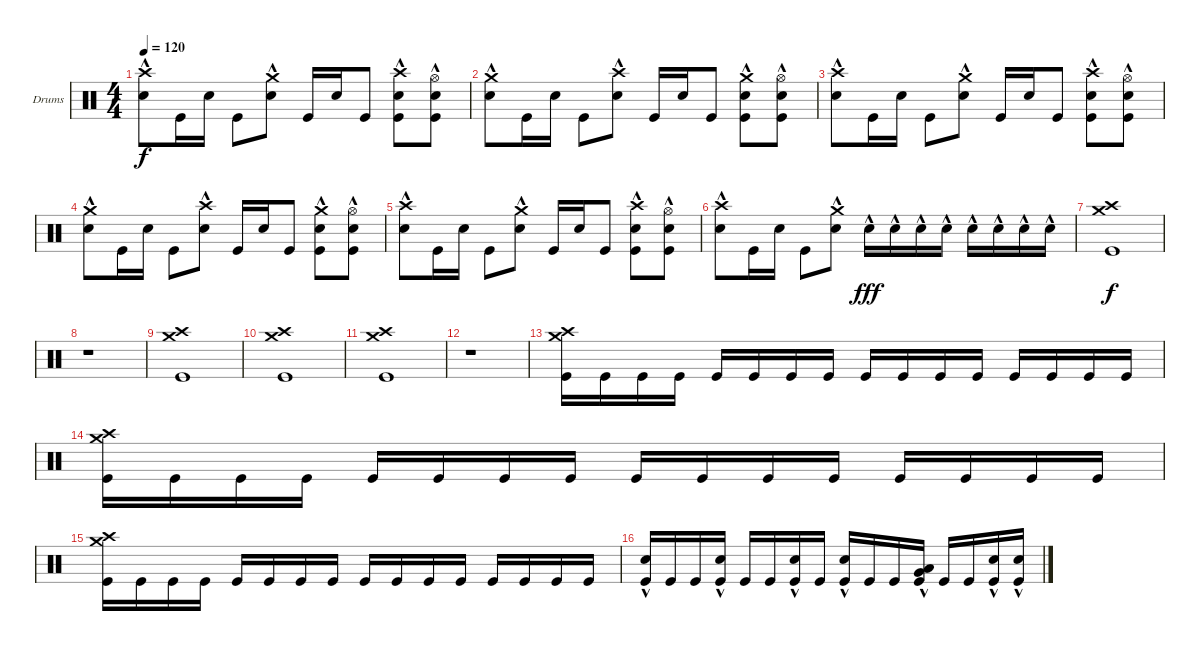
\bracketExtendMode groupsimilarinstruments
\firstSystemTrackNameOrientation horizontal
\otherSystemsTrackNameOrientation horizontal
\track ("Drumkit (Christoph)" "Drums") {instrument percussion}
\staff {score}
\articulation defaults
\ts (4 4)
\tempo 120
\clef neutral
\ks c
("Crash high (hit)" "Snare (hit) 2"{hac}).8{dy f} "Kick (hit)".16 "Snare (hit) 2".16 "Kick (hit)".8 ("Crash medium (hit)" "Snare (hit) 2"{hac}).8 "Kick (hit)".16 "Snare (hit) 2".16 "Kick (hit)".8 ("Crash high (hit)" "Kick (hit)" "Snare (hit) 2"{hac}).8 ("Hi-Hat (open)" "Kick (hit)" "Snare (hit) 2"{hac}).8 |
("Crash medium (hit)" "Snare (hit) 2"{hac}).8 "Kick (hit)".16 "Snare (hit) 2".16 "Kick (hit)".8 ("Crash high (hit)" "Snare (hit) 2"{hac}).8 "Kick (hit)".16 "Snare (hit) 2".16 "Kick (hit)".8 ("Crash medium (hit)" "Kick (hit)" "Snare (hit) 2"{hac}).8 ("Hi-Hat (open)" "Kick (hit)" "Snare (hit) 2"{hac}).8 |
("Crash high (hit)" "Snare (hit) 2"{hac}).8 "Kick (hit)".16 "Snare (hit) 2".16 "Kick (hit)".8 ("Crash medium (hit)" "Snare (hit) 2"{hac}).8 "Kick (hit)".16 "Snare (hit) 2".16 "Kick (hit)".8 ("Crash high (hit)" "Kick (hit)" "Snare (hit) 2"{hac}).8 ("Hi-Hat (open)" "Kick (hit)" "Snare (hit) 2"{hac}).8 |
("Crash medium (hit)" "Snare (hit) 2"{hac}).8 "Kick (hit)".16 "Snare (hit) 2".16 "Kick (hit)".8 ("Crash high (hit)" "Snare (hit) 2"{hac}).8 "Kick (hit)".16 "Snare (hit) 2".16 "Kick (hit)".8 ("Crash medium (hit)" "Kick (hit)" "Snare (hit) 2"{hac}).8 ("Hi-Hat (open)" "Kick (hit)" "Snare (hit) 2"{hac}).8 |
("Crash high (hit)" "Snare (hit) 2"{hac}).8 "Kick (hit)".16 "Snare (hit) 2".16 "Kick (hit)".8 ("Crash medium (hit)" "Snare (hit) 2"{hac}).8 "Kick (hit)".16 "Snare (hit) 2".16 "Kick (hit)".8 ("Crash high (hit)" "Kick (hit)" "Snare (hit) 2"{hac}).8 ("Hi-Hat (open)" "Kick (hit)" "Snare (hit) 2"{hac}).8 |
("Crash high (hit)" "Snare (hit) 2"{hac}).8 "Kick (hit)".16 "Snare (hit) 2".16 "Kick (hit)".8 ("Crash medium (hit)" "Snare (hit) 2"{hac}).8 "Snare (hit) 2"{hac}.16{dy fff} "Snare (hit) 2"{hac}.16 "Snare (hit) 2"{hac}.16 "Snare (hit) 2"{hac}.16 "Snare (hit) 2"{hac}.16 "Snare (hit) 2"{hac}.16 "Snare (hit) 2"{hac}.16 "Snare (hit) 2"{hac}.16 |
("Crash medium (hit)" "Kick (hit)" "Crash high (hit)").1{dy f} |
r.1 |
("Crash medium (hit)" "Kick (hit)" "Crash high (hit)").1 |
("Crash medium (hit)" "Kick (hit)" "Crash high (hit)").1 |
("Crash medium (hit)" "Kick (hit)" "Crash high (hit)").1 |
r.1 |
("Crash medium (hit)" "Kick (hit)" "Crash high (hit)").16 "Kick (hit)".16 "Kick (hit)".16 "Kick (hit)".16 "Kick (hit)".16 "Kick (hit)".16 "Kick (hit)".16 "Kick (hit)".16 "Kick (hit)".16 "Kick (hit)".16 "Kick (hit)".16 "Kick (hit)".16 "Kick (hit)".16 "Kick (hit)".16 "Kick (hit)".16 "Kick (hit)".16 |
("Crash medium (hit)" "Kick (hit)" "Crash high (hit)").16 "Kick (hit)".16 "Kick (hit)".16 "Kick (hit)".16 "Kick (hit)".16 "Kick (hit)".16 "Kick (hit)".16 "Kick (hit)".16 "Kick (hit)".16 "Kick (hit)".16 "Kick (hit)".16 "Kick (hit)".16 "Kick (hit)".16 "Kick (hit)".16 "Kick (hit)".16 "Kick (hit)".16 |
("Crash medium (hit)" "Kick (hit)" "Crash high (hit)").16 "Kick (hit)".16 "Kick (hit)".16 "Kick (hit)".16 "Kick (hit)".16 "Kick (hit)".16 "Kick (hit)".16 "Kick (hit)".16 "Kick (hit)".16 "Kick (hit)".16 "Kick (hit)".16 "Kick (hit)".16 "Kick (hit)".16 "Kick (hit)".16 "Kick (hit)".16 "Kick (hit)".16 |
("Kick (hit)" "Snare (hit) 2"{hac}).16 "Kick (hit)".16 "Kick (hit)".16 ("Kick (hit)" "Snare (hit) 2"{hac}).16 "Kick (hit)".16 "Kick (hit)".16 ("Kick (hit)" "Snare (hit) 2"{hac}).16 "Kick (hit)".16 ("Kick (hit)" "Snare (hit) 2"{hac}).16 "Kick (hit)".16 "Kick (hit)".16 ("Kick (hit)" "Low Tom (hit)"{hac} "Very Low Tom (hit)"{hac}).16 "Kick (hit)".16 "Kick (hit)".16 ("Kick (hit)" "Snare (hit) 2"{hac}).16 ("Kick (hit)" "Snare (hit) 2"{hac}).16
